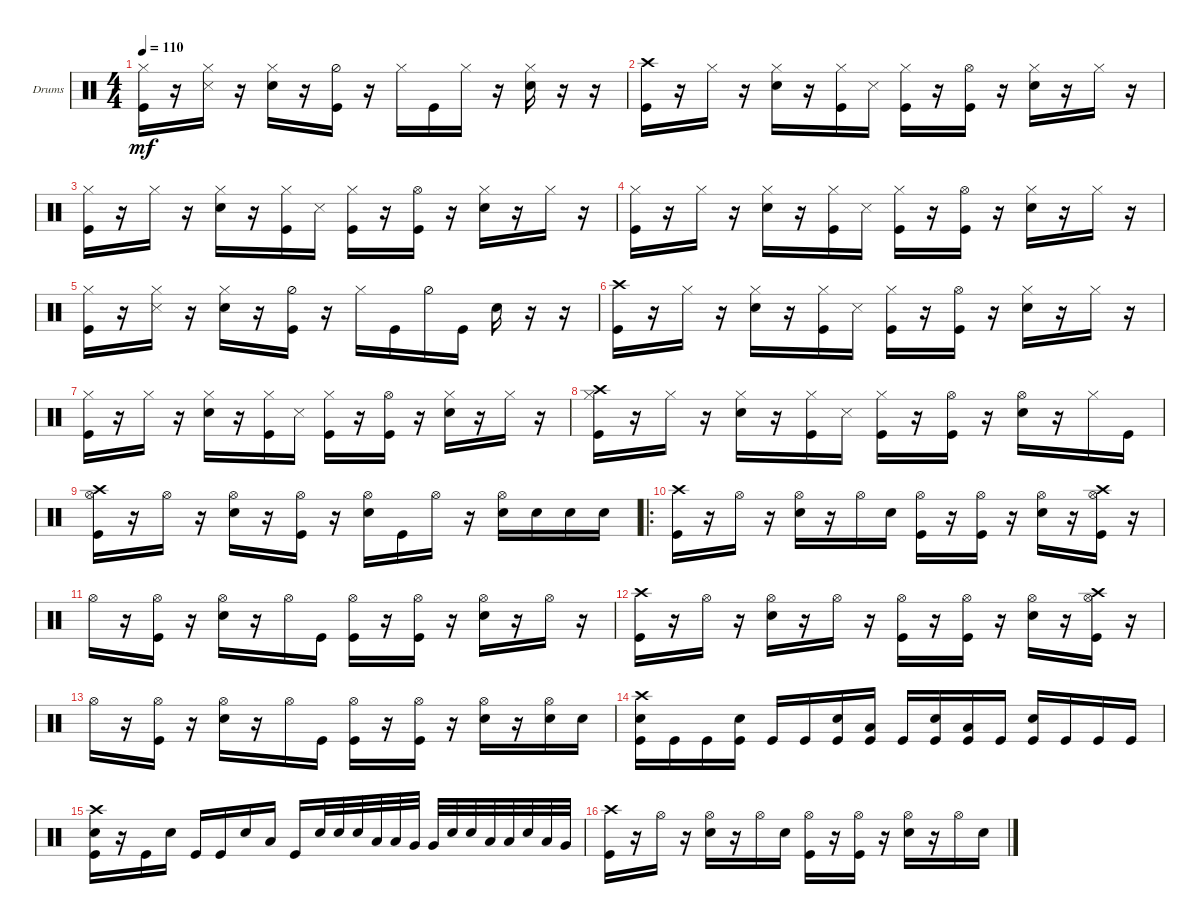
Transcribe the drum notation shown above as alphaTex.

\defaultSystemsLayout 4
\bracketExtendMode groupsimilarinstruments
\firstSystemTrackNameOrientation horizontal
\otherSystemsTrackNameOrientation horizontal
\track ("Drumkit" "Drums") {instrument percussion}
\staff {score}
\articulation defaults
\ts (4 4)
\tempo 110
\clef neutral
\scale
0.333333
\ks c
("Hi-Hat (closed)" "Kick (hit)").16{dy mf} r.16 ("Hi-Hat (closed)" "Snare (side stick) 3").16 r.16 ("Hi-Hat (closed)" "Snare (hit) 2").16 r.16 ("Hi-Hat (half)" "Kick (hit)").16 r.16 "Hi-Hat (closed)".16 "Kick (hit)".16 "Hi-Hat (closed)".16 r.16 ("Snare (hit) 2" "Hi-Hat (closed)").16 r.16 r.16 |
\scale
0.333333 ("Kick (hit)" "Crash high (hit)").16 r.16 "Hi-Hat (closed)".16 r.16 ("Snare (hit) 2" "Hi-Hat (closed)").16 r.16 ("Hi-Hat (closed)" "Kick (hit)").16 "Snare (side stick) 3".16 ("Hi-Hat (closed)" "Kick (hit)").16 r.16 ("Hi-Hat (open)" "Kick (hit)").16 r.16 ("Hi-Hat (closed)" "Snare (hit) 2").16 r.16 "Hi-Hat (closed)".16 r.16 |
\scale
0.333333 ("Kick (hit)" "Hi-Hat (closed)").16 r.16 "Hi-Hat (closed)".16 r.16 ("Snare (hit) 2" "Hi-Hat (closed)").16 r.16 ("Hi-Hat (closed)" "Kick (hit)").16 "Snare (side stick) 3".16 ("Hi-Hat (closed)" "Kick (hit)").16 r.16 ("Hi-Hat (open)" "Kick (hit)").16 r.16 ("Hi-Hat (closed)" "Snare (hit) 2").16 r.16 "Hi-Hat (closed)".16 r.16 |
\scale
0.333333 ("Kick (hit)" "Hi-Hat (closed)").16 r.16 "Hi-Hat (closed)".16 r.16 ("Snare (hit) 2" "Hi-Hat (closed)").16 r.16 ("Hi-Hat (closed)" "Kick (hit)").16 "Snare (side stick) 3".16 ("Hi-Hat (closed)" "Kick (hit)").16 r.16 ("Hi-Hat (open)" "Kick (hit)").16 r.16 ("Hi-Hat (closed)" "Snare (hit) 2").16 r.16 "Hi-Hat (closed)".16 r.16 |
\scale
0.333333 ("Hi-Hat (closed)" "Kick (hit)").16 r.16 ("Hi-Hat (closed)" "Snare (side stick) 3").16 r.16 ("Hi-Hat (closed)" "Snare (hit) 2").16 r.16 ("Hi-Hat (half)" "Kick (hit)").16 r.16 "Hi-Hat (closed)".16 "Kick (hit)".16 "Hi-Hat (half)".16 "Kick (hit)".16 "Snare (hit) 2".16 r.16 r.16 |
\scale
0.333333 ("Kick (hit)" "Crash high (hit)").16 r.16 "Hi-Hat (closed)".16 r.16 ("Snare (hit) 2" "Hi-Hat (closed)").16 r.16 ("Hi-Hat (closed)" "Kick (hit)").16 "Snare (side stick) 3".16 ("Hi-Hat (closed)" "Kick (hit)").16 r.16 ("Hi-Hat (open)" "Kick (hit)").16 r.16 ("Hi-Hat (closed)" "Snare (hit) 2").16 r.16 "Hi-Hat (closed)".16 r.16 |
\scale
0.333333 ("Kick (hit)" "Hi-Hat (closed)").16 r.16 "Hi-Hat (closed)".16 r.16 ("Snare (hit) 2" "Hi-Hat (closed)").16 r.16 ("Hi-Hat (closed)" "Kick (hit)").16 "Snare (side stick) 3".16 ("Hi-Hat (closed)" "Kick (hit)").16 r.16 ("Hi-Hat (open)" "Kick (hit)").16 r.16 ("Hi-Hat (closed)" "Snare (hit) 2").16 r.16 "Hi-Hat (closed)".16 r.16 |
\scale
0.333333 ("Kick (hit)" "Hi-Hat (closed)" "Crash high (hit)").16 r.16 "Hi-Hat (closed)".16 r.16 ("Snare (hit) 2" "Hi-Hat (closed)").16 r.16 ("Hi-Hat (closed)" "Kick (hit)").16 "Snare (side stick) 3".16 ("Hi-Hat (closed)" "Kick (hit)").16 r.16 ("Hi-Hat (open)" "Kick (hit)").16 r.16 ("Hi-Hat (open)" "Snare (hit) 2").16 r.16 "Hi-Hat (closed)".16 "Kick (hit)".16 |
\scale
0.311111 ("Hi-Hat (open)" "Kick (hit)" "Crash high (hit)").16 r.16 "Hi-Hat (open)".16 r.16 ("Hi-Hat (open)" "Snare (hit) 2").16 r.16 ("Hi-Hat (open)" "Kick (hit)").16 r.16 ("Hi-Hat (open)" "Snare (hit) 2").16 "Kick (hit)".16 "Hi-Hat (open)".16 r.16 ("Snare (hit) 2" "Hi-Hat (open)").16 "Snare (hit) 2".16 "Snare (hit) 2".16 "Snare (hit) 2".16 |
\ro
\scale
0.377778 ("Kick (hit)" "Crash high (hit)").16 r.16 "Hi-Hat (open)".16 r.16 ("Hi-Hat (open)" "Snare (hit) 2").16 r.16 "Hi-Hat (open)".16 "Snare (hit) 2".16 ("Hi-Hat (open)" "Kick (hit)").16 r.16 ("Hi-Hat (open)" "Kick (hit)").16 r.16 ("Hi-Hat (open)" "Snare (hit) 2").16 r.16 ("Hi-Hat (open)" "Kick (hit)" "Crash high (hit)").16 r.16 |
\scale
0.311111 "Hi-Hat (open)".16 r.16 ("Hi-Hat (open)" "Kick (hit)").16 r.16 ("Snare (hit) 2" "Hi-Hat (open)").16 r.16 "Hi-Hat (open)".16 "Kick (hit)".16 ("Hi-Hat (open)" "Kick (hit)").16 r.16 ("Hi-Hat (open)" "Kick (hit)").16 r.16 ("Hi-Hat (open)" "Snare (hit) 2").16 r.16 "Hi-Hat (open)".16 r.16 |
\scale
0.333333 ("Kick (hit)" "Crash high (hit)").16 r.16 "Hi-Hat (open)".16 r.16 ("Hi-Hat (open)" "Snare (hit) 2").16 r.16 "Hi-Hat (open)".16 r.16 ("Hi-Hat (open)" "Kick (hit)").16 r.16 ("Hi-Hat (open)" "Kick (hit)").16 r.16 ("Hi-Hat (open)" "Snare (hit) 2").16 r.16 ("Hi-Hat (open)" "Kick (hit)" "Crash high (hit)").16 r.16 |
\scale
0.333333 "Hi-Hat (open)".16 r.16 ("Hi-Hat (open)" "Kick (hit)").16 r.16 ("Snare (hit) 2" "Hi-Hat (open)").16 r.16 "Hi-Hat (open)".16 "Kick (hit)".16 ("Hi-Hat (open)" "Kick (hit)").16 r.16 ("Hi-Hat (open)" "Kick (hit)").16 r.16 ("Hi-Hat (open)" "Snare (hit) 2").16 r.16 ("Hi-Hat (open)" "Snare (hit) 2").16 "Snare (hit) 2".16 |
\scale
0.333333 ("Snare (hit) 2" "Kick (hit)" "Crash high (hit)").16 "Kick (hit)".16 "Kick (hit)".16 ("Snare (hit) 2" "Kick (hit)").16 "Kick (hit)".16 "Kick (hit)".16 ("Snare (hit) 2" "Kick (hit)").16 ("Low Tom (hit)" "Kick (hit)").16 "Kick (hit)".16 ("Snare (hit) 2" "Kick (hit)").16 ("Low Tom (hit)" "Kick (hit)").16 "Kick (hit)".16 ("Snare (hit) 2" "Kick (hit)").16 "Kick (hit)".16 "Kick (hit)".16 "Kick (hit)".16 |
\scale
0.321839 ("Snare (hit) 2" "Kick (hit)" "Crash high (hit)").16 r.16 "Kick (hit)".16 "Snare (hit) 2".16 "Kick (hit)".16 "Kick (hit)".16 "Snare (hit) 2".16 "Low Tom (hit)".16 "Kick (hit)".16 "Snare (hit) 2".32 "Snare (hit) 2".32 "Snare (hit) 2".32 "Low Tom (hit)".32 "Low Tom (hit)".32 "Very Low Tom (hit)".32 "Very Low Tom (hit)".32 "Snare (hit) 2".32 "Snare (hit) 2".32 "Low Tom (hit)".32 "Low Tom (hit)".32 "Snare (hit) 2".32 "Low Tom (hit)".32 "Very Low Tom (hit)".32 |
\scale
0.321839 ("Kick (hit)" "Crash high (hit)").16 r.16 "Hi-Hat (open)".16 r.16 ("Hi-Hat (open)" "Snare (hit) 2").16 r.16 "Hi-Hat (open)".16 "Snare (hit) 2".16 ("Hi-Hat (open)" "Kick (hit)").16 r.16 ("Hi-Hat (open)" "Kick (hit)").16 r.16 ("Hi-Hat (open)" "Snare (hit) 2").16 r.16 "Hi-Hat (open)".16 "Snare (hit) 2".16
